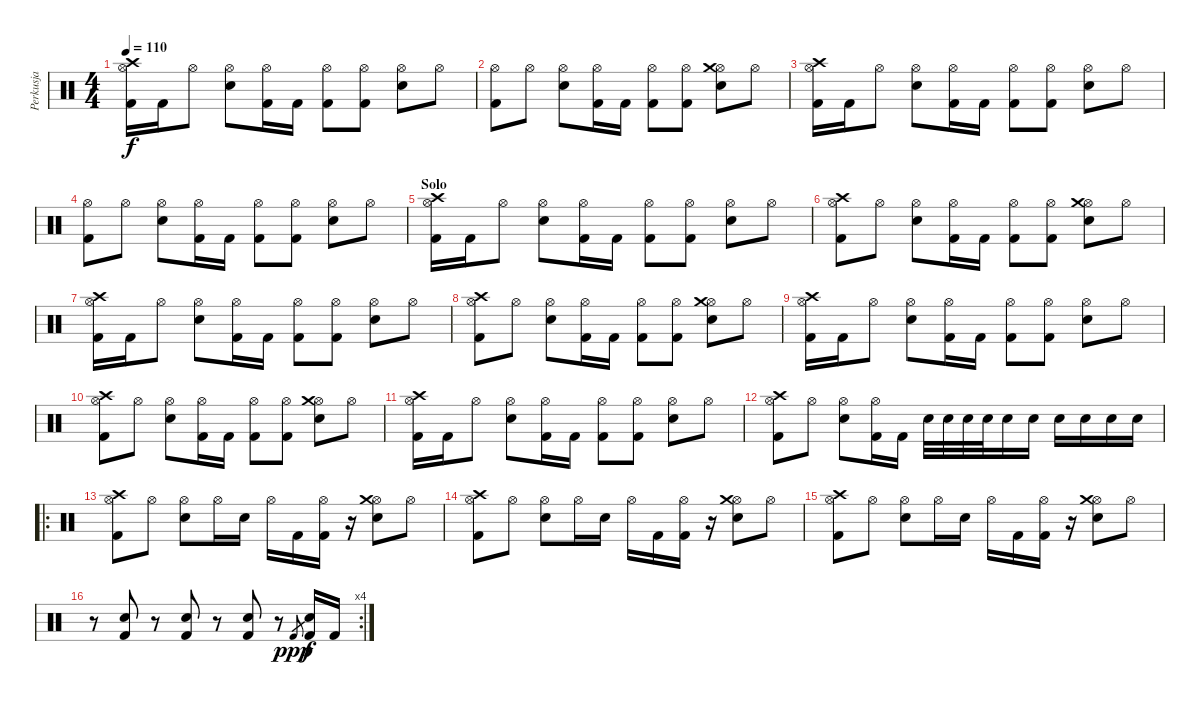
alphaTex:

\track ("Perkusja" "Perkusja") {instrument percussion}
\staff {score}
\articulation defaults
\ts (4 4)
\tempo 110
\clef neutral
\ks c
("Hi-Hat (open)" "Kick (hit) 2" "Crash high (hit)").16{dy f} "Kick (hit) 2".16 "Hi-Hat (open)".8 ("Hi-Hat (open)" "Snare (hit) 2").8 ("Hi-Hat (open)" "Kick (hit) 2").16 "Kick (hit) 2".16 ("Hi-Hat (open)" "Kick (hit) 2").8 ("Hi-Hat (open)" "Kick (hit) 2").8 ("Hi-Hat (open)" "Snare (hit) 2").8 "Hi-Hat (open)".8 |
("Hi-Hat (open)" "Kick (hit) 2").8 "Hi-Hat (open)".8 ("Hi-Hat (open)" "Snare (hit) 2").8 ("Hi-Hat (open)" "Kick (hit) 2").16 "Kick (hit) 2".16 ("Hi-Hat (open)" "Kick (hit) 2").8 ("Hi-Hat (open)" "Kick (hit) 2").8 ("Hi-Hat (open)" "Snare (hit) 2" "Crash medium (hit)").8 "Hi-Hat (open)".8 |
("Hi-Hat (open)" "Kick (hit) 2" "Crash high (hit)").16 "Kick (hit) 2".16 "Hi-Hat (open)".8 ("Hi-Hat (open)" "Snare (hit) 2").8 ("Hi-Hat (open)" "Kick (hit) 2").16 "Kick (hit) 2".16 ("Hi-Hat (open)" "Kick (hit) 2").8 ("Hi-Hat (open)" "Kick (hit) 2").8 ("Hi-Hat (open)" "Snare (hit) 2").8 "Hi-Hat (open)".8 |
("Hi-Hat (open)" "Kick (hit) 2").8 "Hi-Hat (open)".8 ("Hi-Hat (open)" "Snare (hit) 2").8 ("Hi-Hat (open)" "Kick (hit) 2").16 "Kick (hit) 2".16 ("Hi-Hat (open)" "Kick (hit) 2").8 ("Hi-Hat (open)" "Kick (hit) 2").8 ("Hi-Hat (open)" "Snare (hit) 2").8 "Hi-Hat (open)".8 |
\section ("" "Solo")
("Hi-Hat (open)" "Kick (hit) 2" "Crash high (hit)").16 "Kick (hit) 2".16 "Hi-Hat (open)".8 ("Hi-Hat (open)" "Snare (hit) 2").8 ("Hi-Hat (open)" "Kick (hit) 2").16 "Kick (hit) 2".16 ("Hi-Hat (open)" "Kick (hit) 2").8 ("Hi-Hat (open)" "Kick (hit) 2").8 ("Hi-Hat (open)" "Snare (hit) 2").8 "Hi-Hat (open)".8 |
("Hi-Hat (open)" "Kick (hit) 2" "Crash high (hit)").8 "Hi-Hat (open)".8 ("Hi-Hat (open)" "Snare (hit) 2").8 ("Hi-Hat (open)" "Kick (hit) 2").16 "Kick (hit) 2".16 ("Hi-Hat (open)" "Kick (hit) 2").8 ("Hi-Hat (open)" "Kick (hit) 2").8 ("Hi-Hat (open)" "Snare (hit) 2" "Crash medium (hit)").8 "Hi-Hat (open)".8 |
("Hi-Hat (open)" "Kick (hit) 2" "Crash high (hit)").16 "Kick (hit) 2".16 "Hi-Hat (open)".8 ("Hi-Hat (open)" "Snare (hit) 2").8 ("Hi-Hat (open)" "Kick (hit) 2").16 "Kick (hit) 2".16 ("Hi-Hat (open)" "Kick (hit) 2").8 ("Hi-Hat (open)" "Kick (hit) 2").8 ("Hi-Hat (open)" "Snare (hit) 2").8 "Hi-Hat (open)".8 |
("Hi-Hat (open)" "Kick (hit) 2" "Crash high (hit)").8 "Hi-Hat (open)".8 ("Hi-Hat (open)" "Snare (hit) 2").8 ("Hi-Hat (open)" "Kick (hit) 2").16 "Kick (hit) 2".16 ("Hi-Hat (open)" "Kick (hit) 2").8 ("Hi-Hat (open)" "Kick (hit) 2").8 ("Hi-Hat (open)" "Snare (hit) 2" "Crash medium (hit)").8 "Hi-Hat (open)".8 |
("Hi-Hat (open)" "Kick (hit) 2" "Crash high (hit)").16 "Kick (hit) 2".16 "Hi-Hat (open)".8 ("Hi-Hat (open)" "Snare (hit) 2").8 ("Hi-Hat (open)" "Kick (hit) 2").16 "Kick (hit) 2".16 ("Hi-Hat (open)" "Kick (hit) 2").8 ("Hi-Hat (open)" "Kick (hit) 2").8 ("Hi-Hat (open)" "Snare (hit) 2").8 "Hi-Hat (open)".8 |
("Hi-Hat (open)" "Kick (hit) 2" "Crash high (hit)").8 "Hi-Hat (open)".8 ("Hi-Hat (open)" "Snare (hit) 2").8 ("Hi-Hat (open)" "Kick (hit) 2").16 "Kick (hit) 2".16 ("Hi-Hat (open)" "Kick (hit) 2").8 ("Hi-Hat (open)" "Kick (hit) 2").8 ("Hi-Hat (open)" "Snare (hit) 2" "Crash medium (hit)").8 "Hi-Hat (open)".8 |
("Hi-Hat (open)" "Kick (hit) 2" "Crash high (hit)").16 "Kick (hit) 2".16 "Hi-Hat (open)".8 ("Hi-Hat (open)" "Snare (hit) 2").8 ("Hi-Hat (open)" "Kick (hit) 2").16 "Kick (hit) 2".16 ("Hi-Hat (open)" "Kick (hit) 2").8 ("Hi-Hat (open)" "Kick (hit) 2").8 ("Hi-Hat (open)" "Snare (hit) 2").8 "Hi-Hat (open)".8 |
("Hi-Hat (open)" "Kick (hit) 2" "Crash high (hit)").8 "Hi-Hat (open)".8 ("Hi-Hat (open)" "Snare (hit) 2").8 ("Hi-Hat (open)" "Kick (hit) 2").16 "Kick (hit) 2".16 "Snare (hit) 2".32 "Snare (hit) 2".32 "Snare (hit) 2".32 "Snare (hit) 2".32 "Snare (hit) 2".16 "Snare (hit) 2".16 "Snare (hit) 2".16 "Snare (hit) 2".16 "Snare (hit) 2".16 "Snare (hit) 2".16 |
\ro
("Hi-Hat (open)" "Kick (hit) 2" "Crash high (hit)").8 "Hi-Hat (open)".8 ("Hi-Hat (open)" "Snare (hit) 2").8 "Hi-Hat (open)".16 "Snare (hit) 2".16 "Hi-Hat (open)".16 "Kick (hit) 2".16 ("Hi-Hat (open)" "Kick (hit) 2").16 r.16 ("Hi-Hat (open)" "Snare (hit) 2" "Crash medium (hit)").8 "Hi-Hat (open)".8 |
("Hi-Hat (open)" "Kick (hit) 2" "Crash high (hit)").8 "Hi-Hat (open)".8 ("Hi-Hat (open)" "Snare (hit) 2").8 "Hi-Hat (open)".16 "Snare (hit) 2".16 "Hi-Hat (open)".16 "Kick (hit) 2".16 ("Hi-Hat (open)" "Kick (hit) 2").16 r.16 ("Hi-Hat (open)" "Snare (hit) 2" "Crash medium (hit)").8 "Hi-Hat (open)".8 |
("Hi-Hat (open)" "Kick (hit) 2" "Crash high (hit)").8 "Hi-Hat (open)".8 ("Hi-Hat (open)" "Snare (hit) 2").8 "Hi-Hat (open)".16 "Snare (hit) 2".16 "Hi-Hat (open)".16 "Kick (hit) 2".16 ("Hi-Hat (open)" "Kick (hit) 2").16 r.16 ("Hi-Hat (open)" "Snare (hit) 2" "Crash medium (hit)").8 "Hi-Hat (open)".8 |
\rc 4
r.8 ("Kick (hit) 2" "Snare (hit) 2").8 r.8 ("Kick (hit) 2" "Snare (hit) 2").8 r.8 ("Kick (hit) 2" "Snare (hit) 2").8 r.8 "Kick (hit) 2".8{gr dy ppp} ("Kick (hit) 2" "Snare (hit) 2").16{dy f} "Kick (hit) 2".16
